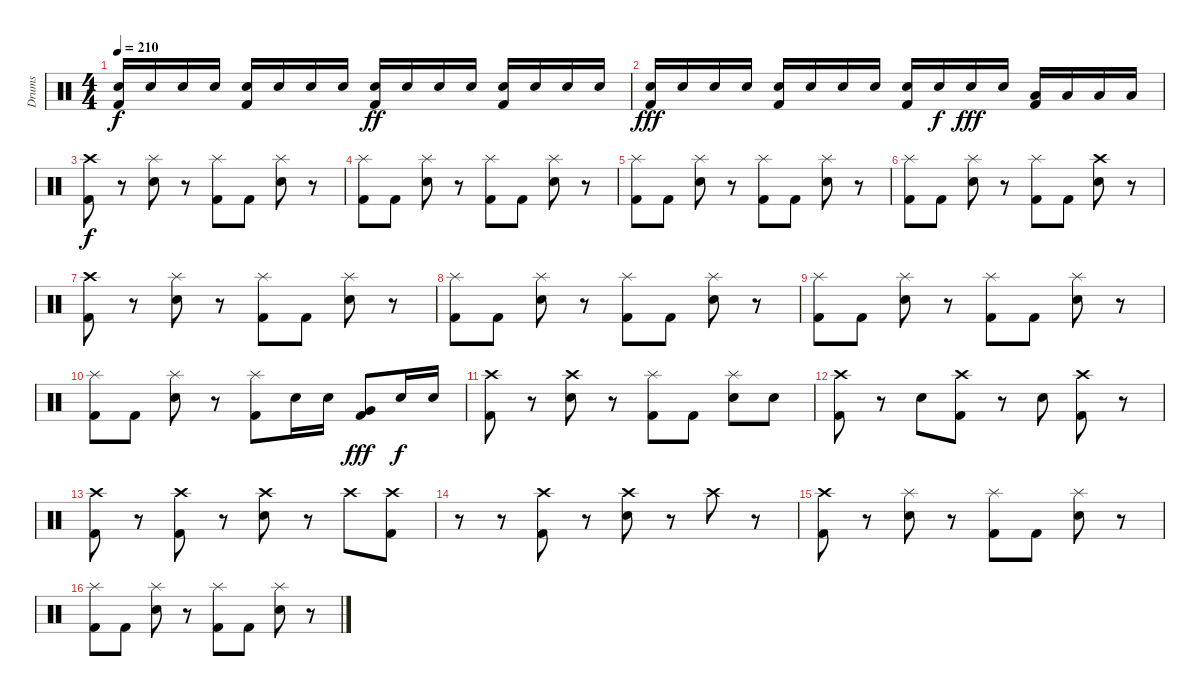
\track ("Drums" "Drums") {instrument percussion}
\staff {score}
\articulation defaults
\ts (4 4)
\tempo 210
\clef neutral
\ks c
("Electric Snare (hit)" "Kick (hit) 2").16{dy f} "Electric Snare (hit)".16 "Electric Snare (hit)".16 "Electric Snare (hit)".16 ("Electric Snare (hit)" "Kick (hit) 2").16 "Electric Snare (hit)".16 "Electric Snare (hit)".16 "Electric Snare (hit)".16 ("Electric Snare (hit)" "Kick (hit) 2").16{dy ff} "Electric Snare (hit)".16 "Electric Snare (hit)".16 "Electric Snare (hit)".16 ("Electric Snare (hit)" "Kick (hit) 2").16 "Electric Snare (hit)".16 "Electric Snare (hit)".16 "Electric Snare (hit)".16 |
("Electric Snare (hit)" "Kick (hit) 2").16{dy fff} "Electric Snare (hit)".16 "Electric Snare (hit)".16 "Electric Snare (hit)".16 ("Electric Snare (hit)" "Kick (hit) 2").16 "Electric Snare (hit)".16 "Electric Snare (hit)".16 "Electric Snare (hit)".16 ("Electric Snare (hit)" "Kick (hit) 2").16 "Electric Snare (hit)".16{dy f} "Electric Snare (hit)".16{dy fff} "Electric Snare (hit)".16 ("Low Tom (hit)" "Kick (hit) 2").16 "Low Tom (hit)".16 "Low Tom (hit)".16 "Low Tom (hit)".16 |
("Crash high (hit)" "Kick (hit) 2").8{dy f} r.8 ("Splash (hit)" "Electric Snare (hit)").8 r.8 ("Splash (hit)" "Kick (hit) 2").8 "Kick (hit) 2".8 ("Splash (hit)" "Electric Snare (hit)").8 r.8 |
("Splash (hit)" "Kick (hit) 2").8 "Kick (hit) 2".8 ("Splash (hit)" "Electric Snare (hit)").8 r.8 ("Splash (hit)" "Kick (hit) 2").8 "Kick (hit) 2".8 ("Splash (hit)" "Electric Snare (hit)").8 r.8 |
("Splash (hit)" "Kick (hit) 2").8 "Kick (hit) 2".8 ("Splash (hit)" "Electric Snare (hit)").8 r.8 ("Splash (hit)" "Kick (hit) 2").8 "Kick (hit) 2".8 ("Splash (hit)" "Electric Snare (hit)").8 r.8 |
("Splash (hit)" "Kick (hit) 2").8 "Kick (hit) 2".8 ("Splash (hit)" "Electric Snare (hit)").8 r.8 ("Splash (hit)" "Kick (hit) 2").8 "Kick (hit) 2".8 ("Crash high (hit)" "Electric Snare (hit)").8 r.8 |
("Crash high (hit)" "Kick (hit) 2").8 r.8 ("Splash (hit)" "Electric Snare (hit)").8 r.8 ("Splash (hit)" "Kick (hit) 2").8 "Kick (hit) 2".8 ("Splash (hit)" "Electric Snare (hit)").8 r.8 |
("Splash (hit)" "Kick (hit) 2").8 "Kick (hit) 2".8 ("Splash (hit)" "Electric Snare (hit)").8 r.8 ("Splash (hit)" "Kick (hit) 2").8 "Kick (hit) 2".8 ("Splash (hit)" "Electric Snare (hit)").8 r.8 |
("Splash (hit)" "Kick (hit) 2").8 "Kick (hit) 2".8 ("Splash (hit)" "Electric Snare (hit)").8 r.8 ("Splash (hit)" "Kick (hit) 2").8 "Kick (hit) 2".8 ("Splash (hit)" "Electric Snare (hit)").8 r.8 |
("Splash (hit)" "Kick (hit) 2").8 "Kick (hit) 2".8 ("Splash (hit)" "Electric Snare (hit)").8 r.8 ("Splash (hit)" "Kick (hit) 2").8 "Electric Snare (hit)".16 "Electric Snare (hit)".16 ("Very Low Tom (hit)" "Kick (hit) 2").8{dy fff} "Electric Snare (hit)".16{dy f} "Electric Snare (hit)".16 |
("Crash high (hit)" "Kick (hit) 2").8 r.8 ("Crash high (hit)" "Electric Snare (hit)").8 r.8 ("Splash (hit)" "Kick (hit) 2").8 "Kick (hit) 2".8 ("Splash (hit)" "Electric Snare (hit)").8 "Electric Snare (hit)".8 |
("Crash high (hit)" "Kick (hit) 2").8 r.8 "Electric Snare (hit)".8 ("Crash high (hit)" "Kick (hit) 2").8 r.8 "Electric Snare (hit)".8 ("Crash high (hit)" "Kick (hit) 2").8 r.8 |
("Crash high (hit)" "Kick (hit) 2").8 r.8 ("Crash high (hit)" "Kick (hit) 2").8 r.8 ("Crash high (hit)" "Electric Snare (hit)").8 r.8 "Crash high (hit)".8 ("Crash high (hit)" "Kick (hit) 2").8 |
r.8 r.8 ("Crash high (hit)" "Kick (hit) 2").8 r.8 ("Crash high (hit)" "Electric Snare (hit)").8 r.8 "Crash high (hit)".8 r.8 |
("Crash high (hit)" "Kick (hit) 2").8 r.8 ("Splash (hit)" "Electric Snare (hit)").8 r.8 ("Splash (hit)" "Kick (hit) 2").8 "Kick (hit) 2".8 ("Splash (hit)" "Electric Snare (hit)").8 r.8 |
("Splash (hit)" "Kick (hit) 2").8 "Kick (hit) 2".8 ("Splash (hit)" "Electric Snare (hit)").8 r.8 ("Splash (hit)" "Kick (hit) 2").8 "Kick (hit) 2".8 ("Splash (hit)" "Electric Snare (hit)").8 r.8
